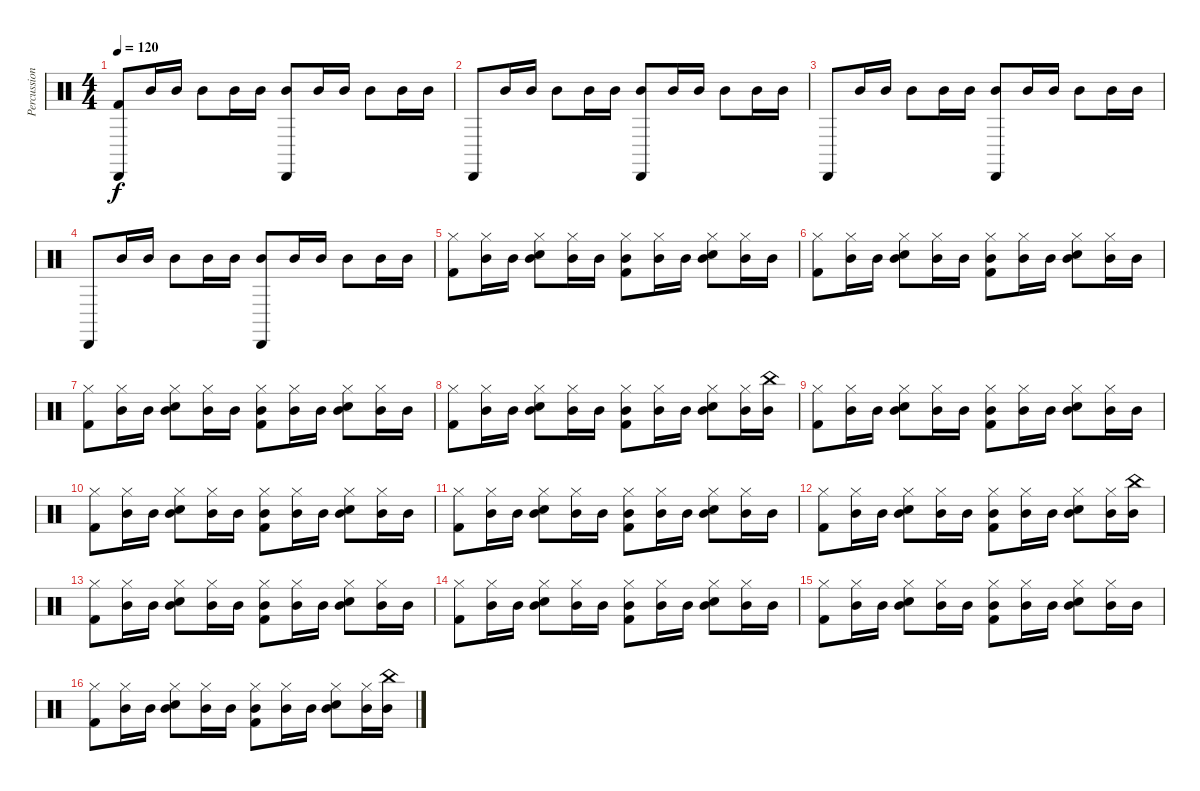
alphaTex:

\track ("Percussions" "Percussion") {instrument percussion}
\staff {score}
\articulation defaults
\ts (4 4)
\tempo 120
\clef neutral
\ks c
("Cabasa (hit)" "Kick (hit) 2").8{dy f} "Mid Tom (hit)".16 "Mid Tom (hit)".16 "Mid Tom (hit)".8 "Mid Tom (hit)".16 "Mid Tom (hit)".16 ("Mid Tom (hit)" "Cabasa (hit)").8 "Mid Tom (hit)".16 "Mid Tom (hit)".16 "Mid Tom (hit)".8 "Mid Tom (hit)".16 "Mid Tom (hit)".16 |
"Cabasa (hit)".8 "Mid Tom (hit)".16 "Mid Tom (hit)".16 "Mid Tom (hit)".8 "Mid Tom (hit)".16 "Mid Tom (hit)".16 ("Mid Tom (hit)" "Cabasa (hit)").8 "Mid Tom (hit)".16 "Mid Tom (hit)".16 "Mid Tom (hit)".8 "Mid Tom (hit)".16 "Mid Tom (hit)".16 |
"Cabasa (hit)".8 "Mid Tom (hit)".16 "Mid Tom (hit)".16 "Mid Tom (hit)".8 "Mid Tom (hit)".16 "Mid Tom (hit)".16 ("Mid Tom (hit)" "Cabasa (hit)").8 "Mid Tom (hit)".16 "Mid Tom (hit)".16 "Mid Tom (hit)".8 "Mid Tom (hit)".16 "Mid Tom (hit)".16 |
"Cabasa (hit)".8 "Mid Tom (hit)".16 "Mid Tom (hit)".16 "Mid Tom (hit)".8 "Mid Tom (hit)".16 "Mid Tom (hit)".16 ("Mid Tom (hit)" "Cabasa (hit)").8 "Mid Tom (hit)".16 "Mid Tom (hit)".16 "Mid Tom (hit)".8 "Mid Tom (hit)".16 "Mid Tom (hit)".16 |
("Kick (hit) 2" "Hi-Hat (closed)").8 ("Mid Tom (hit)" "Hi-Hat (closed)").16 "Mid Tom (hit)".16 ("Mid Tom (hit)" "Hi-Hat (closed)" "Electric Snare (hit)").8 ("Mid Tom (hit)" "Hi-Hat (closed)").16 "Mid Tom (hit)".16 ("Mid Tom (hit)" "Hi-Hat (closed)" "Kick (hit) 2").8 ("Mid Tom (hit)" "Hi-Hat (closed)").16 "Mid Tom (hit)".16 ("Mid Tom (hit)" "Hi-Hat (closed)" "Electric Snare (hit)").8 ("Mid Tom (hit)" "Hi-Hat (closed)").16 "Mid Tom (hit)".16 |
("Kick (hit) 2" "Hi-Hat (closed)").8 ("Mid Tom (hit)" "Hi-Hat (closed)").16 "Mid Tom (hit)".16 ("Mid Tom (hit)" "Hi-Hat (closed)" "Electric Snare (hit)").8 ("Mid Tom (hit)" "Hi-Hat (closed)").16 "Mid Tom (hit)".16 ("Mid Tom (hit)" "Hi-Hat (closed)" "Kick (hit) 2").8 ("Mid Tom (hit)" "Hi-Hat (closed)").16 "Mid Tom (hit)".16 ("Mid Tom (hit)" "Hi-Hat (closed)" "Electric Snare (hit)").8 ("Mid Tom (hit)" "Hi-Hat (closed)").16 "Mid Tom (hit)".16 |
("Kick (hit) 2" "Hi-Hat (closed)").8 ("Mid Tom (hit)" "Hi-Hat (closed)").16 "Mid Tom (hit)".16 ("Mid Tom (hit)" "Hi-Hat (closed)" "Electric Snare (hit)").8 ("Mid Tom (hit)" "Hi-Hat (closed)").16 "Mid Tom (hit)".16 ("Mid Tom (hit)" "Hi-Hat (closed)" "Kick (hit) 2").8 ("Mid Tom (hit)" "Hi-Hat (closed)").16 "Mid Tom (hit)".16 ("Mid Tom (hit)" "Hi-Hat (closed)" "Electric Snare (hit)").8 ("Mid Tom (hit)" "Hi-Hat (closed)").16 "Mid Tom (hit)".16 |
("Kick (hit) 2" "Hi-Hat (closed)").8 ("Mid Tom (hit)" "Hi-Hat (closed)").16 "Mid Tom (hit)".16 ("Mid Tom (hit)" "Hi-Hat (closed)" "Electric Snare (hit)").8 ("Mid Tom (hit)" "Hi-Hat (closed)").16 "Mid Tom (hit)".16 ("Mid Tom (hit)" "Hi-Hat (closed)" "Kick (hit) 2").8 ("Mid Tom (hit)" "Hi-Hat (closed)").16 "Mid Tom (hit)".16 ("Mid Tom (hit)" "Hi-Hat (closed)" "Electric Snare (hit)").8 ("Mid Tom (hit)" "Hi-Hat (closed)").16 ("Mid Tom (hit)" "China (hit)").16 |
("Kick (hit) 2" "Hi-Hat (closed)").8 ("Mid Tom (hit)" "Hi-Hat (closed)").16 "Mid Tom (hit)".16 ("Mid Tom (hit)" "Hi-Hat (closed)" "Electric Snare (hit)").8 ("Mid Tom (hit)" "Hi-Hat (closed)").16 "Mid Tom (hit)".16 ("Mid Tom (hit)" "Hi-Hat (closed)" "Kick (hit) 2").8 ("Mid Tom (hit)" "Hi-Hat (closed)").16 "Mid Tom (hit)".16 ("Mid Tom (hit)" "Hi-Hat (closed)" "Electric Snare (hit)").8 ("Mid Tom (hit)" "Hi-Hat (closed)").16 "Mid Tom (hit)".16 |
("Kick (hit) 2" "Hi-Hat (closed)").8 ("Mid Tom (hit)" "Hi-Hat (closed)").16 "Mid Tom (hit)".16 ("Mid Tom (hit)" "Hi-Hat (closed)" "Electric Snare (hit)").8 ("Mid Tom (hit)" "Hi-Hat (closed)").16 "Mid Tom (hit)".16 ("Mid Tom (hit)" "Hi-Hat (closed)" "Kick (hit) 2").8 ("Mid Tom (hit)" "Hi-Hat (closed)").16 "Mid Tom (hit)".16 ("Mid Tom (hit)" "Hi-Hat (closed)" "Electric Snare (hit)").8 ("Mid Tom (hit)" "Hi-Hat (closed)").16 "Mid Tom (hit)".16 |
("Kick (hit) 2" "Hi-Hat (closed)").8 ("Mid Tom (hit)" "Hi-Hat (closed)").16 "Mid Tom (hit)".16 ("Mid Tom (hit)" "Hi-Hat (closed)" "Electric Snare (hit)").8 ("Mid Tom (hit)" "Hi-Hat (closed)").16 "Mid Tom (hit)".16 ("Mid Tom (hit)" "Hi-Hat (closed)" "Kick (hit) 2").8 ("Mid Tom (hit)" "Hi-Hat (closed)").16 "Mid Tom (hit)".16 ("Mid Tom (hit)" "Hi-Hat (closed)" "Electric Snare (hit)").8 ("Mid Tom (hit)" "Hi-Hat (closed)").16 "Mid Tom (hit)".16 |
("Kick (hit) 2" "Hi-Hat (closed)").8 ("Mid Tom (hit)" "Hi-Hat (closed)").16 "Mid Tom (hit)".16 ("Mid Tom (hit)" "Hi-Hat (closed)" "Electric Snare (hit)").8 ("Mid Tom (hit)" "Hi-Hat (closed)").16 "Mid Tom (hit)".16 ("Mid Tom (hit)" "Hi-Hat (closed)" "Kick (hit) 2").8 ("Mid Tom (hit)" "Hi-Hat (closed)").16 "Mid Tom (hit)".16 ("Mid Tom (hit)" "Hi-Hat (closed)" "Electric Snare (hit)").8 ("Mid Tom (hit)" "Hi-Hat (closed)").16 ("Mid Tom (hit)" "China (hit)").16 |
("Kick (hit) 2" "Hi-Hat (closed)").8 ("Mid Tom (hit)" "Hi-Hat (closed)").16 "Mid Tom (hit)".16 ("Mid Tom (hit)" "Hi-Hat (closed)" "Electric Snare (hit)").8 ("Mid Tom (hit)" "Hi-Hat (closed)").16 "Mid Tom (hit)".16 ("Mid Tom (hit)" "Hi-Hat (closed)" "Kick (hit) 2").8 ("Mid Tom (hit)" "Hi-Hat (closed)").16 "Mid Tom (hit)".16 ("Mid Tom (hit)" "Hi-Hat (closed)" "Electric Snare (hit)").8 ("Mid Tom (hit)" "Hi-Hat (closed)").16 "Mid Tom (hit)".16 |
("Kick (hit) 2" "Hi-Hat (closed)").8 ("Mid Tom (hit)" "Hi-Hat (closed)").16 "Mid Tom (hit)".16 ("Mid Tom (hit)" "Hi-Hat (closed)" "Electric Snare (hit)").8 ("Mid Tom (hit)" "Hi-Hat (closed)").16 "Mid Tom (hit)".16 ("Mid Tom (hit)" "Hi-Hat (closed)" "Kick (hit) 2").8 ("Mid Tom (hit)" "Hi-Hat (closed)").16 "Mid Tom (hit)".16 ("Mid Tom (hit)" "Hi-Hat (closed)" "Electric Snare (hit)").8 ("Mid Tom (hit)" "Hi-Hat (closed)").16 "Mid Tom (hit)".16 |
("Kick (hit) 2" "Hi-Hat (closed)").8 ("Mid Tom (hit)" "Hi-Hat (closed)").16 "Mid Tom (hit)".16 ("Mid Tom (hit)" "Hi-Hat (closed)" "Electric Snare (hit)").8 ("Mid Tom (hit)" "Hi-Hat (closed)").16 "Mid Tom (hit)".16 ("Mid Tom (hit)" "Hi-Hat (closed)" "Kick (hit) 2").8 ("Mid Tom (hit)" "Hi-Hat (closed)").16 "Mid Tom (hit)".16 ("Mid Tom (hit)" "Hi-Hat (closed)" "Electric Snare (hit)").8 ("Mid Tom (hit)" "Hi-Hat (closed)").16 "Mid Tom (hit)".16 |
("Kick (hit) 2" "Hi-Hat (closed)").8 ("Mid Tom (hit)" "Hi-Hat (closed)").16 "Mid Tom (hit)".16 ("Mid Tom (hit)" "Hi-Hat (closed)" "Electric Snare (hit)").8 ("Mid Tom (hit)" "Hi-Hat (closed)").16 "Mid Tom (hit)".16 ("Mid Tom (hit)" "Hi-Hat (closed)" "Kick (hit) 2").8 ("Mid Tom (hit)" "Hi-Hat (closed)").16 "Mid Tom (hit)".16 ("Mid Tom (hit)" "Hi-Hat (closed)" "Electric Snare (hit)").8 ("Mid Tom (hit)" "Hi-Hat (closed)").16 ("Mid Tom (hit)" "China (hit)").16
